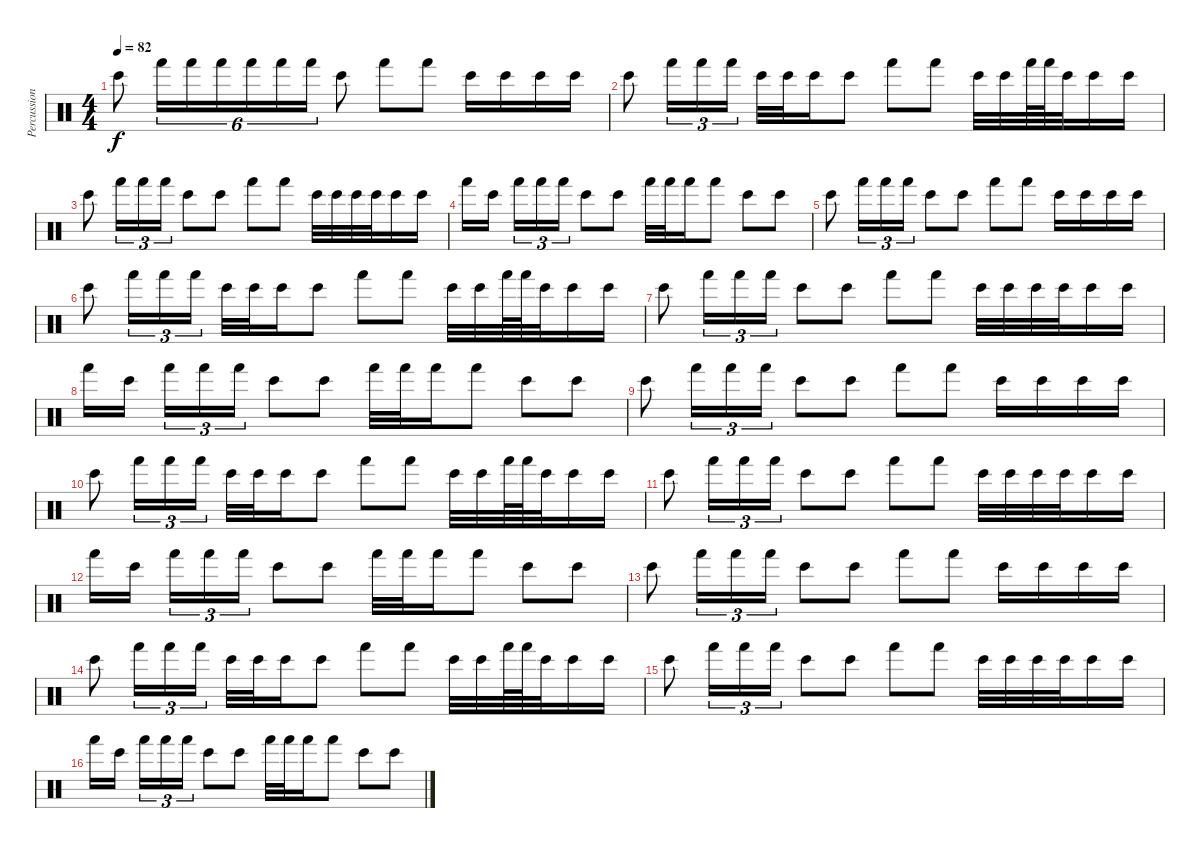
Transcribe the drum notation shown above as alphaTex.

\track ("Percussion" "Percussion") {instrument percussion}
\staff {score}
\articulation defaults
\ts (4 4)
\tempo 82
\clef neutral
\ks c "Bongo High (hit)".8{dy f} "Hand (hit)".16{tu (6 4)} "Hand (hit)".16{tu (6 4)} "Hand (hit)".16{tu (6 4)} "Hand (hit)".16{tu (6 4)} "Hand (hit)".16{tu (6 4)} "Hand (hit)".16{tu (6 4)} "Bongo High (hit)".8 "Hand (hit)".8 "Hand (hit)".8 "Bongo High (hit)".16 "Bongo High (hit)".16 "Bongo High (hit)".16 "Bongo High (hit)".16
|
"Bongo High (hit)".8 "Hand (hit)".16{tu (3 2)} "Hand (hit)".16{tu (3 2)} "Hand (hit)".16{tu (3 2)} "Bongo High (hit)".32 "Bongo High (hit)".32 "Bongo High (hit)".16 "Bongo High (hit)".8 "Hand (hit)".8 "Hand (hit)".8 "Bongo High (hit)".32 "Bongo High (hit)".32 "Hand (hit)".64 "Hand (hit)".64 "Bongo High (hit)".32 "Bongo High (hit)".16 "Bongo High (hit)".16 |
\section ("" "")
"Bongo High (hit)".8 "Hand (hit)".16{tu (3 2)} "Hand (hit)".16{tu (3 2)} "Hand (hit)".16{tu (3 2)} "Bongo High (hit)".8 "Bongo High (hit)".8 "Hand (hit)".8 "Hand (hit)".8 "Bongo High (hit)".32 "Bongo High (hit)".32 "Bongo High (hit)".32 "Bongo High (hit)".32 "Bongo High (hit)".16 "Bongo High (hit)".16 |
"Hand (hit)".16 "Bongo High (hit)".16 "Hand (hit)".16{tu (3 2)} "Hand (hit)".16{tu (3 2)} "Hand (hit)".16{tu (3 2)} "Bongo High (hit)".8 "Bongo High (hit)".8 "Hand (hit)".32 "Hand (hit)".32 "Hand (hit)".16 "Hand (hit)".8 "Bongo High (hit)".8 "Bongo High (hit)".8 |
"Bongo High (hit)".8 "Hand (hit)".16{tu (3 2)} "Hand (hit)".16{tu (3 2)} "Hand (hit)".16{tu (3 2)} "Bongo High (hit)".8 "Bongo High (hit)".8 "Hand (hit)".8 "Hand (hit)".8 "Bongo High (hit)".16 "Bongo High (hit)".16 "Bongo High (hit)".16 "Bongo High (hit)".16 |
"Bongo High (hit)".8 "Hand (hit)".16{tu (3 2)} "Hand (hit)".16{tu (3 2)} "Hand (hit)".16{tu (3 2)} "Bongo High (hit)".32 "Bongo High (hit)".32 "Bongo High (hit)".16 "Bongo High (hit)".8 "Hand (hit)".8 "Hand (hit)".8 "Bongo High (hit)".32 "Bongo High (hit)".32 "Hand (hit)".64 "Hand (hit)".64 "Bongo High (hit)".32 "Bongo High (hit)".16 "Bongo High (hit)".16 |
"Bongo High (hit)".8 "Hand (hit)".16{tu (3 2)} "Hand (hit)".16{tu (3 2)} "Hand (hit)".16{tu (3 2)} "Bongo High (hit)".8 "Bongo High (hit)".8 "Hand (hit)".8 "Hand (hit)".8 "Bongo High (hit)".32 "Bongo High (hit)".32 "Bongo High (hit)".32 "Bongo High (hit)".32 "Bongo High (hit)".16 "Bongo High (hit)".16 |
"Hand (hit)".16 "Bongo High (hit)".16 "Hand (hit)".16{tu (3 2)} "Hand (hit)".16{tu (3 2)} "Hand (hit)".16{tu (3 2)} "Bongo High (hit)".8 "Bongo High (hit)".8 "Hand (hit)".32 "Hand (hit)".32 "Hand (hit)".16 "Hand (hit)".8 "Bongo High (hit)".8 "Bongo High (hit)".8 |
"Bongo High (hit)".8 "Hand (hit)".16{tu (3 2)} "Hand (hit)".16{tu (3 2)} "Hand (hit)".16{tu (3 2)} "Bongo High (hit)".8 "Bongo High (hit)".8 "Hand (hit)".8 "Hand (hit)".8 "Bongo High (hit)".16 "Bongo High (hit)".16 "Bongo High (hit)".16 "Bongo High (hit)".16 |
"Bongo High (hit)".8 "Hand (hit)".16{tu (3 2)} "Hand (hit)".16{tu (3 2)} "Hand (hit)".16{tu (3 2)} "Bongo High (hit)".32 "Bongo High (hit)".32 "Bongo High (hit)".16 "Bongo High (hit)".8 "Hand (hit)".8 "Hand (hit)".8 "Bongo High (hit)".32 "Bongo High (hit)".32 "Hand (hit)".64 "Hand (hit)".64 "Bongo High (hit)".32 "Bongo High (hit)".16 "Bongo High (hit)".16 |
"Bongo High (hit)".8 "Hand (hit)".16{tu (3 2)} "Hand (hit)".16{tu (3 2)} "Hand (hit)".16{tu (3 2)} "Bongo High (hit)".8 "Bongo High (hit)".8 "Hand (hit)".8 "Hand (hit)".8 "Bongo High (hit)".32 "Bongo High (hit)".32 "Bongo High (hit)".32 "Bongo High (hit)".32 "Bongo High (hit)".16 "Bongo High (hit)".16 |
"Hand (hit)".16 "Bongo High (hit)".16 "Hand (hit)".16{tu (3 2)} "Hand (hit)".16{tu (3 2)} "Hand (hit)".16{tu (3 2)} "Bongo High (hit)".8 "Bongo High (hit)".8 "Hand (hit)".32 "Hand (hit)".32 "Hand (hit)".16 "Hand (hit)".8 "Bongo High (hit)".8 "Bongo High (hit)".8 |
"Bongo High (hit)".8 "Hand (hit)".16{tu (3 2)} "Hand (hit)".16{tu (3 2)} "Hand (hit)".16{tu (3 2)} "Bongo High (hit)".8 "Bongo High (hit)".8 "Hand (hit)".8 "Hand (hit)".8 "Bongo High (hit)".16 "Bongo High (hit)".16 "Bongo High (hit)".16 "Bongo High (hit)".16 |
"Bongo High (hit)".8 "Hand (hit)".16{tu (3 2)} "Hand (hit)".16{tu (3 2)} "Hand (hit)".16{tu (3 2)} "Bongo High (hit)".32 "Bongo High (hit)".32 "Bongo High (hit)".16 "Bongo High (hit)".8 "Hand (hit)".8 "Hand (hit)".8 "Bongo High (hit)".32 "Bongo High (hit)".32 "Hand (hit)".64 "Hand (hit)".64 "Bongo High (hit)".32 "Bongo High (hit)".16 "Bongo High (hit)".16 |
"Bongo High (hit)".8 "Hand (hit)".16{tu (3 2)} "Hand (hit)".16{tu (3 2)} "Hand (hit)".16{tu (3 2)} "Bongo High (hit)".8 "Bongo High (hit)".8 "Hand (hit)".8 "Hand (hit)".8 "Bongo High (hit)".32 "Bongo High (hit)".32 "Bongo High (hit)".32 "Bongo High (hit)".32 "Bongo High (hit)".16 "Bongo High (hit)".16 |
"Hand (hit)".16 "Bongo High (hit)".16 "Hand (hit)".16{tu (3 2)} "Hand (hit)".16{tu (3 2)} "Hand (hit)".16{tu (3 2)} "Bongo High (hit)".8 "Bongo High (hit)".8 "Hand (hit)".32 "Hand (hit)".32 "Hand (hit)".16 "Hand (hit)".8 "Bongo High (hit)".8 "Bongo High (hit)".8
